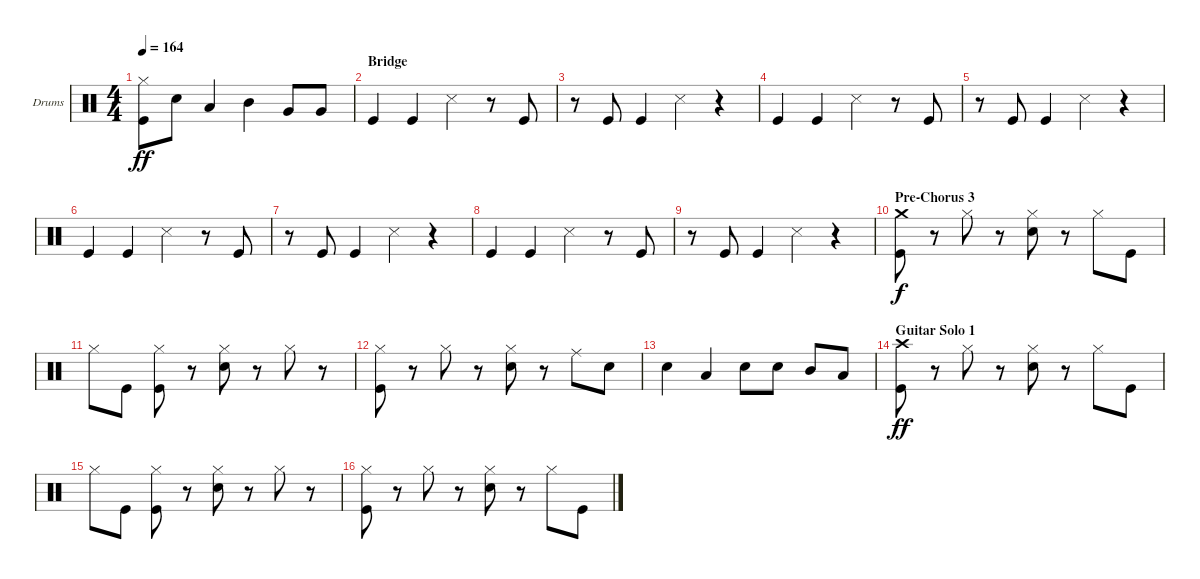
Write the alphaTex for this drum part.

\defaultSystemsLayout 4
\bracketExtendMode groupsimilarinstruments
\firstSystemTrackNameOrientation horizontal
\otherSystemsTrackNameOrientation horizontal
\track ("Drumkit" "Drums") {instrument percussion}
\staff {score}
\articulation defaults
\ts (4 4)
\tempo 164
\clef neutral
\ks c
("Hi-Hat (closed)" "Kick (hit)").8{dy ff} "Snare (hit) 2".8 "Low Tom (hit)".4 "Mid Tom (hit)".4 "Very Low Tom (hit)".8 "Very Low Tom (hit)".8 |
\section ("" "Bridge")
"Kick (hit)".4 "Kick (hit)".4 "Snare (side stick) 3".4 r.8 "Kick (hit)".8 |
r.8 "Kick (hit)".8 "Kick (hit)".4 "Snare (side stick) 3".4 r.4 |
"Kick (hit)".4 "Kick (hit)".4 "Snare (side stick) 3".4 r.8 "Kick (hit)".8 |
r.8 "Kick (hit)".8 "Kick (hit)".4 "Snare (side stick) 3".4 r.4 |
"Kick (hit)".4 "Kick (hit)".4 "Snare (side stick) 3".4 r.8 "Kick (hit)".8 |
r.8 "Kick (hit)".8 "Kick (hit)".4 "Snare (side stick) 3".4 r.4 |
"Kick (hit)".4 "Kick (hit)".4 "Snare (side stick) 3".4 r.8 "Kick (hit)".8 |
r.8 "Kick (hit)".8 "Kick (hit)".4 "Snare (side stick) 3".4 r.4 |
\section ("" "Pre-Chorus 3")
("Kick (hit)" "Crash medium (hit)").8{dy f} r.8 "Hi-Hat (closed)".8 r.8 ("Hi-Hat (closed)" "Snare (hit) 2").8 r.8 "Hi-Hat (closed)".8 "Kick (hit)".8 |
"Hi-Hat (closed)".8 "Kick (hit)".8 ("Hi-Hat (closed)" "Kick (hit)").8 r.8 ("Snare (hit) 2" "Hi-Hat (closed)").8 r.8 "Hi-Hat (closed)".8 r.8 |
("Kick (hit)" "Hi-Hat (closed)").8 r.8 "Hi-Hat (closed)".8 r.8 ("Hi-Hat (closed)" "Snare (hit) 2").8 r.8 "Ride (middle)".8 "Snare (hit) 2".8 |
"Snare (hit) 2".4 "Low Tom (hit)".4 "Snare (hit) 2".8 "Snare (hit) 2".8 "Mid Tom (hit)".8 "Low Tom (hit)".8 |
\section ("" "Guitar Solo 1")
("Kick (hit)" "Crash high (hit)").8{dy ff} r.8 "Hi-Hat (closed)".8 r.8 ("Hi-Hat (closed)" "Snare (hit) 2").8 r.8 "Hi-Hat (closed)".8 "Kick (hit)".8 |
"Hi-Hat (closed)".8 "Kick (hit)".8 ("Hi-Hat (closed)" "Kick (hit)").8 r.8 ("Hi-Hat (closed)" "Snare (hit) 2").8 r.8 "Hi-Hat (closed)".8 r.8 |
("Kick (hit)" "Hi-Hat (closed)").8 r.8 "Hi-Hat (closed)".8 r.8 ("Hi-Hat (closed)" "Snare (hit) 2").8 r.8 "Hi-Hat (closed)".8 "Kick (hit)".8
